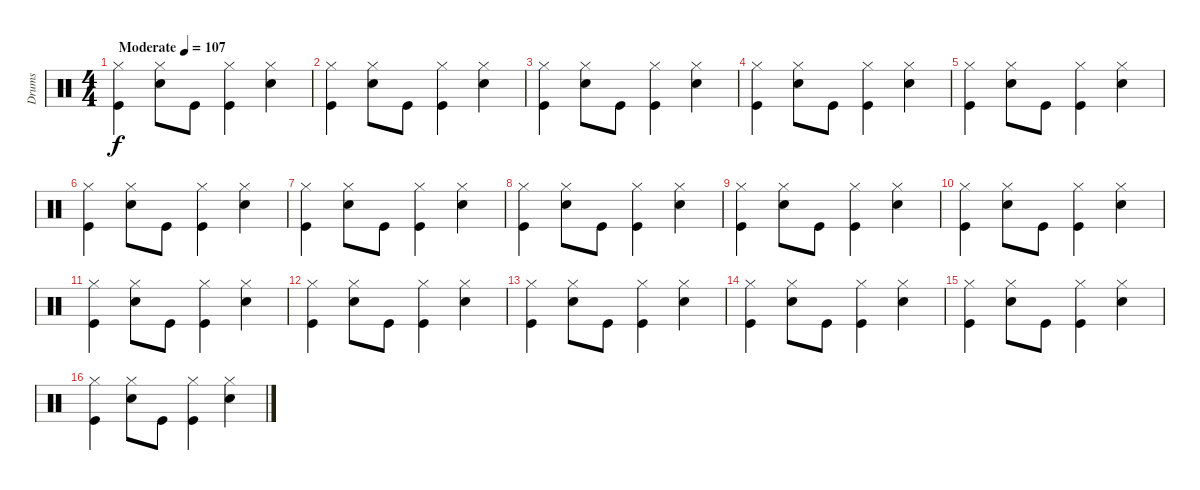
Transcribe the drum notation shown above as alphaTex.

\track ("Drums" "Drums") {instrument percussion}
\staff {score}
\articulation defaults
\ts (4 4)
\tempo (107 "Moderate")
\clef neutral
\ks c
("Kick (hit)" "Hi-Hat (closed)").4{dy f} ("Snare (hit) 2" "Hi-Hat (closed)").8 "Kick (hit)".8 ("Kick (hit)" "Hi-Hat (closed)").4 ("Snare (hit) 2" "Hi-Hat (closed)").4 |
("Kick (hit)" "Hi-Hat (closed)").4 ("Snare (hit) 2" "Hi-Hat (closed)").8 "Kick (hit)".8 ("Kick (hit)" "Hi-Hat (closed)").4 ("Snare (hit) 2" "Hi-Hat (closed)").4 |
("Kick (hit)" "Hi-Hat (closed)").4 ("Snare (hit) 2" "Hi-Hat (closed)").8 "Kick (hit)".8 ("Kick (hit)" "Hi-Hat (closed)").4 ("Snare (hit) 2" "Hi-Hat (closed)").4 |
("Kick (hit)" "Hi-Hat (closed)").4 ("Snare (hit) 2" "Hi-Hat (closed)").8 "Kick (hit)".8 ("Kick (hit)" "Hi-Hat (closed)").4 ("Snare (hit) 2" "Hi-Hat (closed)").4 |
("Kick (hit)" "Hi-Hat (closed)").4 ("Snare (hit) 2" "Hi-Hat (closed)").8 "Kick (hit)".8 ("Kick (hit)" "Hi-Hat (closed)").4 ("Snare (hit) 2" "Hi-Hat (closed)").4 |
("Kick (hit)" "Hi-Hat (closed)").4 ("Snare (hit) 2" "Hi-Hat (closed)").8 "Kick (hit)".8 ("Kick (hit)" "Hi-Hat (closed)").4 ("Snare (hit) 2" "Hi-Hat (closed)").4 |
("Kick (hit)" "Hi-Hat (closed)").4 ("Snare (hit) 2" "Hi-Hat (closed)").8 "Kick (hit)".8 ("Kick (hit)" "Hi-Hat (closed)").4 ("Snare (hit) 2" "Hi-Hat (closed)").4 |
("Kick (hit)" "Hi-Hat (closed)").4 ("Snare (hit) 2" "Hi-Hat (closed)").8 "Kick (hit)".8 ("Kick (hit)" "Hi-Hat (closed)").4 ("Snare (hit) 2" "Hi-Hat (closed)").4 |
("Kick (hit)" "Hi-Hat (closed)").4 ("Snare (hit) 2" "Hi-Hat (closed)").8 "Kick (hit)".8 ("Kick (hit)" "Hi-Hat (closed)").4 ("Snare (hit) 2" "Hi-Hat (closed)").4 |
("Kick (hit)" "Hi-Hat (closed)").4 ("Snare (hit) 2" "Hi-Hat (closed)").8 "Kick (hit)".8 ("Kick (hit)" "Hi-Hat (closed)").4 ("Snare (hit) 2" "Hi-Hat (closed)").4 |
("Kick (hit)" "Hi-Hat (closed)").4 ("Snare (hit) 2" "Hi-Hat (closed)").8 "Kick (hit)".8 ("Kick (hit)" "Hi-Hat (closed)").4 ("Snare (hit) 2" "Hi-Hat (closed)").4 |
("Kick (hit)" "Hi-Hat (closed)").4 ("Snare (hit) 2" "Hi-Hat (closed)").8 "Kick (hit)".8 ("Kick (hit)" "Hi-Hat (closed)").4 ("Snare (hit) 2" "Hi-Hat (closed)").4 |
("Kick (hit)" "Hi-Hat (closed)").4 ("Snare (hit) 2" "Hi-Hat (closed)").8 "Kick (hit)".8 ("Kick (hit)" "Hi-Hat (closed)").4 ("Snare (hit) 2" "Hi-Hat (closed)").4 |
("Kick (hit)" "Hi-Hat (closed)").4 ("Snare (hit) 2" "Hi-Hat (closed)").8 "Kick (hit)".8 ("Kick (hit)" "Hi-Hat (closed)").4 ("Snare (hit) 2" "Hi-Hat (closed)").4 |
("Kick (hit)" "Hi-Hat (closed)").4 ("Snare (hit) 2" "Hi-Hat (closed)").8 "Kick (hit)".8 ("Kick (hit)" "Hi-Hat (closed)").4 ("Snare (hit) 2" "Hi-Hat (closed)").4 |
("Kick (hit)" "Hi-Hat (closed)").4 ("Snare (hit) 2" "Hi-Hat (closed)").8 "Kick (hit)".8 ("Kick (hit)" "Hi-Hat (closed)").4 ("Snare (hit) 2" "Hi-Hat (closed)").4
